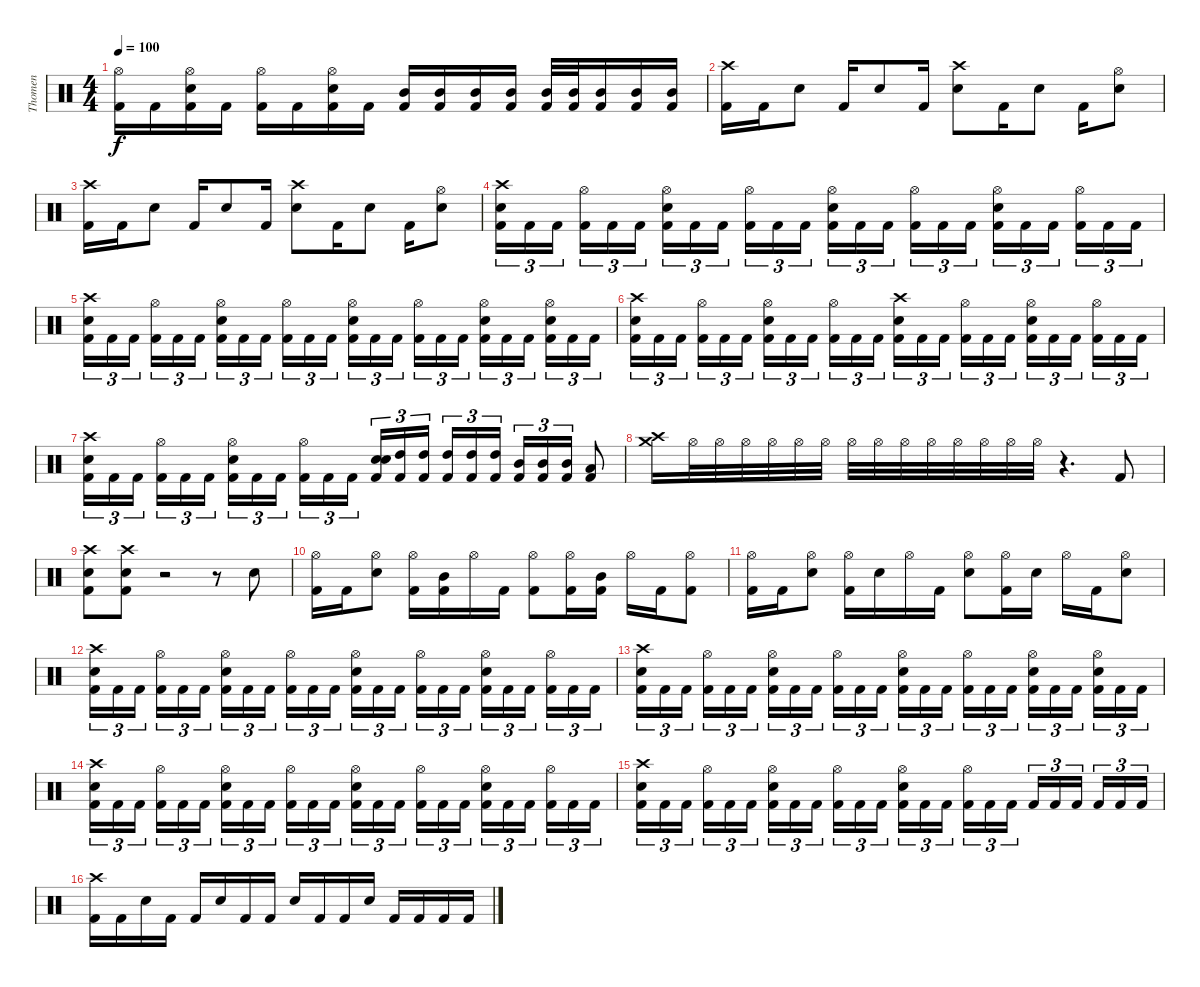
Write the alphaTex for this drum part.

\track ("Thomen" "Thomen") {instrument percussion}
\staff {score}
\articulation defaults
\ts (4 4)
\tempo 100
\clef neutral
\ks c
("Hi-Hat (open)" "Kick (hit) 2").16{dy f} "Kick (hit) 2".16 ("Hi-Hat (open)" "Snare (hit) 2" "Kick (hit) 2").16 "Kick (hit) 2".16 ("Hi-Hat (open)" "Kick (hit) 2").16 "Kick (hit) 2".16 ("Hi-Hat (open)" "Snare (hit) 2" "Kick (hit) 2").16 "Kick (hit) 2".16 ("Mid Tom (hit)" "Kick (hit) 2").16 ("Mid Tom (hit)" "Kick (hit) 2").16 ("Mid Tom (hit)" "Kick (hit) 2").16 ("Mid Tom (hit)" "Kick (hit) 2").16 ("Mid Tom (hit)" "Kick (hit) 2").32 ("Mid Tom (hit)" "Kick (hit) 2").32 ("Mid Tom (hit)" "Kick (hit) 2").16 ("Mid Tom (hit)" "Kick (hit) 2").16 ("Mid Tom (hit)" "Kick (hit) 2").16 |
("Crash high (hit)" "Kick (hit) 2").16 "Kick (hit) 2".16 "Snare (hit) 2".8 "Kick (hit) 2".16 "Snare (hit) 2".8 "Kick (hit) 2".16 ("Crash high (hit)" "Snare (hit) 2").8 "Kick (hit) 2".16 "Snare (hit) 2".8 "Kick (hit) 2".16 ("Hi-Hat (open)" "Snare (hit) 2").8 |
("Crash high (hit)" "Kick (hit) 2").16 "Kick (hit) 2".16 "Snare (hit) 2".8 "Kick (hit) 2".16 "Snare (hit) 2".8 "Kick (hit) 2".16 ("Crash high (hit)" "Snare (hit) 2").8 "Kick (hit) 2".16 "Snare (hit) 2".8 "Kick (hit) 2".16 ("Hi-Hat (open)" "Snare (hit) 2").8 |
("Crash high (hit)" "Snare (hit) 2" "Kick (hit) 2").16{tu (3 2)} "Kick (hit) 2".16{tu (3 2)} "Kick (hit) 2".16{tu (3 2) beam splitsecondary} ("Hi-Hat (open)" "Kick (hit) 2").16{tu (3 2)} "Kick (hit) 2".16{tu (3 2)} "Kick (hit) 2".16{tu (3 2)} ("Hi-Hat (open)" "Snare (hit) 2" "Kick (hit) 2").16{tu (3 2)} "Kick (hit) 2".16{tu (3 2)} "Kick (hit) 2".16{tu (3 2) beam splitsecondary} ("Hi-Hat (open)" "Kick (hit) 2").16{tu (3 2)} "Kick (hit) 2".16{tu (3 2)} "Kick (hit) 2".16{tu (3 2)} ("Hi-Hat (open)" "Snare (hit) 2" "Kick (hit) 2").16{tu (3 2)} "Kick (hit) 2".16{tu (3 2)} "Kick (hit) 2".16{tu (3 2) beam splitsecondary} ("Hi-Hat (open)" "Kick (hit) 2").16{tu (3 2)} "Kick (hit) 2".16{tu (3 2)} "Kick (hit) 2".16{tu (3 2)} ("Hi-Hat (open)" "Snare (hit) 2" "Kick (hit) 2").16{tu (3 2)} "Kick (hit) 2".16{tu (3 2)} "Kick (hit) 2".16{tu (3 2) beam splitsecondary} ("Hi-Hat (open)" "Kick (hit) 2").16{tu (3 2)} "Kick (hit) 2".16{tu (3 2)} "Kick (hit) 2".16{tu (3 2)} |
("Crash high (hit)" "Snare (hit) 2" "Kick (hit) 2").16{tu (3 2)} "Kick (hit) 2".16{tu (3 2)} "Kick (hit) 2".16{tu (3 2) beam splitsecondary} ("Hi-Hat (open)" "Kick (hit) 2").16{tu (3 2)} "Kick (hit) 2".16{tu (3 2)} "Kick (hit) 2".16{tu (3 2)} ("Hi-Hat (open)" "Snare (hit) 2" "Kick (hit) 2").16{tu (3 2)} "Kick (hit) 2".16{tu (3 2)} "Kick (hit) 2".16{tu (3 2) beam splitsecondary} ("Hi-Hat (open)" "Kick (hit) 2").16{tu (3 2)} "Kick (hit) 2".16{tu (3 2)} "Kick (hit) 2".16{tu (3 2)} ("Hi-Hat (open)" "Snare (hit) 2" "Kick (hit) 2").16{tu (3 2)} "Kick (hit) 2".16{tu (3 2)} "Kick (hit) 2".16{tu (3 2) beam splitsecondary} ("Hi-Hat (open)" "Kick (hit) 2").16{tu (3 2)} "Kick (hit) 2".16{tu (3 2)} "Kick (hit) 2".16{tu (3 2)} ("Hi-Hat (open)" "Snare (hit) 2" "Kick (hit) 2").16{tu (3 2)} "Kick (hit) 2".16{tu (3 2)} "Kick (hit) 2".16{tu (3 2) beam splitsecondary} ("Hi-Hat (open)" "Snare (hit) 2" "Kick (hit) 2").16{tu (3 2)} "Kick (hit) 2".16{tu (3 2)} "Kick (hit) 2".16{tu (3 2)} |
("Crash high (hit)" "Snare (hit) 2" "Kick (hit) 2").16{tu (3 2)} "Kick (hit) 2".16{tu (3 2)} "Kick (hit) 2".16{tu (3 2) beam splitsecondary} ("Hi-Hat (open)" "Kick (hit) 2").16{tu (3 2)} "Kick (hit) 2".16{tu (3 2)} "Kick (hit) 2".16{tu (3 2)} ("Hi-Hat (open)" "Snare (hit) 2" "Kick (hit) 2").16{tu (3 2)} "Kick (hit) 2".16{tu (3 2)} "Kick (hit) 2".16{tu (3 2) beam splitsecondary} ("Hi-Hat (open)" "Kick (hit) 2").16{tu (3 2)} "Kick (hit) 2".16{tu (3 2)} "Kick (hit) 2".16{tu (3 2)} ("Crash high (hit)" "Snare (hit) 2" "Kick (hit) 2").16{tu (3 2)} "Kick (hit) 2".16{tu (3 2)} "Kick (hit) 2".16{tu (3 2) beam splitsecondary} ("Hi-Hat (open)" "Kick (hit) 2").16{tu (3 2)} "Kick (hit) 2".16{tu (3 2)} "Kick (hit) 2".16{tu (3 2)} ("Hi-Hat (open)" "Snare (hit) 2" "Kick (hit) 2").16{tu (3 2)} "Kick (hit) 2".16{tu (3 2)} "Kick (hit) 2".16{tu (3 2) beam splitsecondary} ("Hi-Hat (open)" "Kick (hit) 2").16{tu (3 2)} "Kick (hit) 2".16{tu (3 2)} "Kick (hit) 2".16{tu (3 2)} |
("Crash high (hit)" "Snare (hit) 2" "Kick (hit) 2").16{tu (3 2)} "Kick (hit) 2".16{tu (3 2)} "Kick (hit) 2".16{tu (3 2) beam splitsecondary} ("Hi-Hat (open)" "Kick (hit) 2").16{tu (3 2)} "Kick (hit) 2".16{tu (3 2)} "Kick (hit) 2".16{tu (3 2)} ("Hi-Hat (open)" "Snare (hit) 2" "Kick (hit) 2").16{tu (3 2)} "Kick (hit) 2".16{tu (3 2)} "Kick (hit) 2".16{tu (3 2) beam splitsecondary} ("Hi-Hat (open)" "Kick (hit) 2").16{tu (3 2)} "Kick (hit) 2".16{tu (3 2)} "Kick (hit) 2".16{tu (3 2)} ("Electric Snare (hit)" "Snare (hit) 2" "Kick (hit) 2").16{tu (3 2)} ("High Tom (hit)" "Kick (hit) 2").16{tu (3 2)} ("High Tom (hit)" "Kick (hit) 2").16{tu (3 2) beam splitsecondary} ("High Tom (hit)" "Kick (hit) 2").16{tu (3 2)} ("High Tom (hit)" "Kick (hit) 2").16{tu (3 2)} ("High Tom (hit)" "Kick (hit) 2").16{tu (3 2)} ("Mid Tom (hit)" "Kick (hit) 2").16{tu (3 2)} ("Mid Tom (hit)" "Kick (hit) 2").16{tu (3 2)} ("Mid Tom (hit)" "Kick (hit) 2").16{tu (3 2)} ("Low Tom (hit)" "Kick (hit) 2").8 |
("Crash medium (hit)" "Crash high (hit)").16 "Hi-Hat (open)".32 "Hi-Hat (open)".32 "Hi-Hat (open)".32 "Hi-Hat (open)".32 "Hi-Hat (open)".32 "Hi-Hat (open)".32 "Hi-Hat (open)".32 "Hi-Hat (open)".32 "Hi-Hat (open)".32 "Hi-Hat (open)".32 "Hi-Hat (open)".32 "Hi-Hat (open)".32 "Hi-Hat (open)".32 "Hi-Hat (open)".32 r.4{d} "Kick (hit) 2".8 |
("Crash high (hit)" "Snare (hit) 2" "Kick (hit) 2").8 ("Crash high (hit)" "Snare (hit) 2" "Kick (hit) 2").8 r.2 r.8 "Snare (hit) 2".8 |
("Hi-Hat (open)" "Kick (hit) 2").16 "Kick (hit) 2".16 ("Hi-Hat (open)" "Snare (hit) 2").8 ("Hi-Hat (open)" "Kick (hit) 2").16 ("Mid Tom (hit)" "Kick (hit) 2").16 "Hi-Hat (open)".16 "Kick (hit) 2".16 ("Hi-Hat (open)" "Kick (hit) 2").8 ("Hi-Hat (open)" "Kick (hit) 2").16 ("Mid Tom (hit)" "Kick (hit) 2").16 "Hi-Hat (open)".16 "Kick (hit) 2".16 ("Hi-Hat (open)" "Kick (hit) 2").8 |
("Hi-Hat (open)" "Kick (hit) 2").16 "Kick (hit) 2".16 ("Hi-Hat (open)" "Snare (hit) 2").8 ("Hi-Hat (open)" "Kick (hit) 2").16 "Snare (hit) 2".16 "Hi-Hat (open)".16 "Kick (hit) 2".16 ("Hi-Hat (open)" "Snare (hit) 2").8 ("Hi-Hat (open)" "Kick (hit) 2").16 "Snare (hit) 2".16 "Hi-Hat (open)".16 "Kick (hit) 2".16 ("Hi-Hat (open)" "Snare (hit) 2").8 |
("Crash high (hit)" "Snare (hit) 2" "Kick (hit) 2").16{tu (3 2)} "Kick (hit) 2".16{tu (3 2)} "Kick (hit) 2".16{tu (3 2) beam splitsecondary} ("Hi-Hat (open)" "Kick (hit) 2").16{tu (3 2)} "Kick (hit) 2".16{tu (3 2)} "Kick (hit) 2".16{tu (3 2)} ("Hi-Hat (open)" "Snare (hit) 2" "Kick (hit) 2").16{tu (3 2)} "Kick (hit) 2".16{tu (3 2)} "Kick (hit) 2".16{tu (3 2) beam splitsecondary} ("Hi-Hat (open)" "Kick (hit) 2").16{tu (3 2)} "Kick (hit) 2".16{tu (3 2)} "Kick (hit) 2".16{tu (3 2)} ("Hi-Hat (open)" "Snare (hit) 2" "Kick (hit) 2").16{tu (3 2)} "Kick (hit) 2".16{tu (3 2)} "Kick (hit) 2".16{tu (3 2) beam splitsecondary} ("Hi-Hat (open)" "Kick (hit) 2").16{tu (3 2)} "Kick (hit) 2".16{tu (3 2)} "Kick (hit) 2".16{tu (3 2)} ("Hi-Hat (open)" "Snare (hit) 2" "Kick (hit) 2").16{tu (3 2)} "Kick (hit) 2".16{tu (3 2)} "Kick (hit) 2".16{tu (3 2) beam splitsecondary} ("Hi-Hat (open)" "Kick (hit) 2").16{tu (3 2)} "Kick (hit) 2".16{tu (3 2)} "Kick (hit) 2".16{tu (3 2)} |
("Crash high (hit)" "Snare (hit) 2" "Kick (hit) 2").16{tu (3 2)} "Kick (hit) 2".16{tu (3 2)} "Kick (hit) 2".16{tu (3 2) beam splitsecondary} ("Hi-Hat (open)" "Kick (hit) 2").16{tu (3 2)} "Kick (hit) 2".16{tu (3 2)} "Kick (hit) 2".16{tu (3 2)} ("Hi-Hat (open)" "Snare (hit) 2" "Kick (hit) 2").16{tu (3 2)} "Kick (hit) 2".16{tu (3 2)} "Kick (hit) 2".16{tu (3 2) beam splitsecondary} ("Hi-Hat (open)" "Kick (hit) 2").16{tu (3 2)} "Kick (hit) 2".16{tu (3 2)} "Kick (hit) 2".16{tu (3 2)} ("Hi-Hat (open)" "Snare (hit) 2" "Kick (hit) 2").16{tu (3 2)} "Kick (hit) 2".16{tu (3 2)} "Kick (hit) 2".16{tu (3 2) beam splitsecondary} ("Hi-Hat (open)" "Kick (hit) 2").16{tu (3 2)} "Kick (hit) 2".16{tu (3 2)} "Kick (hit) 2".16{tu (3 2)} ("Hi-Hat (open)" "Snare (hit) 2" "Kick (hit) 2").16{tu (3 2)} "Kick (hit) 2".16{tu (3 2)} "Kick (hit) 2".16{tu (3 2) beam splitsecondary} ("Hi-Hat (open)" "Snare (hit) 2" "Kick (hit) 2").16{tu (3 2)} "Kick (hit) 2".16{tu (3 2)} "Kick (hit) 2".16{tu (3 2)} |
("Crash high (hit)" "Snare (hit) 2" "Kick (hit) 2").16{tu (3 2)} "Kick (hit) 2".16{tu (3 2)} "Kick (hit) 2".16{tu (3 2) beam splitsecondary} ("Hi-Hat (open)" "Kick (hit) 2").16{tu (3 2)} "Kick (hit) 2".16{tu (3 2)} "Kick (hit) 2".16{tu (3 2)} ("Hi-Hat (open)" "Snare (hit) 2" "Kick (hit) 2").16{tu (3 2)} "Kick (hit) 2".16{tu (3 2)} "Kick (hit) 2".16{tu (3 2) beam splitsecondary} ("Hi-Hat (open)" "Kick (hit) 2").16{tu (3 2)} "Kick (hit) 2".16{tu (3 2)} "Kick (hit) 2".16{tu (3 2)} ("Hi-Hat (open)" "Snare (hit) 2" "Kick (hit) 2").16{tu (3 2)} "Kick (hit) 2".16{tu (3 2)} "Kick (hit) 2".16{tu (3 2) beam splitsecondary} ("Hi-Hat (open)" "Kick (hit) 2").16{tu (3 2)} "Kick (hit) 2".16{tu (3 2)} "Kick (hit) 2".16{tu (3 2)} ("Hi-Hat (open)" "Snare (hit) 2" "Kick (hit) 2").16{tu (3 2)} "Kick (hit) 2".16{tu (3 2)} "Kick (hit) 2".16{tu (3 2) beam splitsecondary} ("Hi-Hat (open)" "Kick (hit) 2").16{tu (3 2)} "Kick (hit) 2".16{tu (3 2)} "Kick (hit) 2".16{tu (3 2)} |
("Crash high (hit)" "Snare (hit) 2" "Kick (hit) 2").16{tu (3 2)} "Kick (hit) 2".16{tu (3 2)} "Kick (hit) 2".16{tu (3 2) beam splitsecondary} ("Hi-Hat (open)" "Kick (hit) 2").16{tu (3 2)} "Kick (hit) 2".16{tu (3 2)} "Kick (hit) 2".16{tu (3 2)} ("Hi-Hat (open)" "Snare (hit) 2" "Kick (hit) 2").16{tu (3 2)} "Kick (hit) 2".16{tu (3 2)} "Kick (hit) 2".16{tu (3 2) beam splitsecondary} ("Hi-Hat (open)" "Kick (hit) 2").16{tu (3 2)} "Kick (hit) 2".16{tu (3 2)} "Kick (hit) 2".16{tu (3 2)} ("Hi-Hat (open)" "Snare (hit) 2" "Kick (hit) 2").16{tu (3 2)} "Kick (hit) 2".16{tu (3 2)} "Kick (hit) 2".16{tu (3 2) beam splitsecondary} ("Hi-Hat (open)" "Kick (hit) 2").16{tu (3 2)} "Kick (hit) 2".16{tu (3 2)} "Kick (hit) 2".16{tu (3 2)} "Kick (hit) 2".16{tu (3 2)} "Kick (hit) 2".16{tu (3 2)} "Kick (hit) 2".16{tu (3 2) beam splitsecondary} "Kick (hit) 2".16{tu (3 2)} "Kick (hit) 2".16{tu (3 2)} "Kick (hit) 2".16{tu (3 2)} |
("Crash high (hit)" "Kick (hit) 2").16 "Kick (hit) 2".16 "Snare (hit) 2".16 "Kick (hit) 2".16 "Kick (hit) 2".16 "Snare (hit) 2".16 "Kick (hit) 2".16 "Kick (hit) 2".16 "Snare (hit) 2".16 "Kick (hit) 2".16 "Kick (hit) 2".16 "Snare (hit) 2".16 "Kick (hit) 2".16 "Kick (hit) 2".16 "Kick (hit) 2".16 "Kick (hit) 2".16
